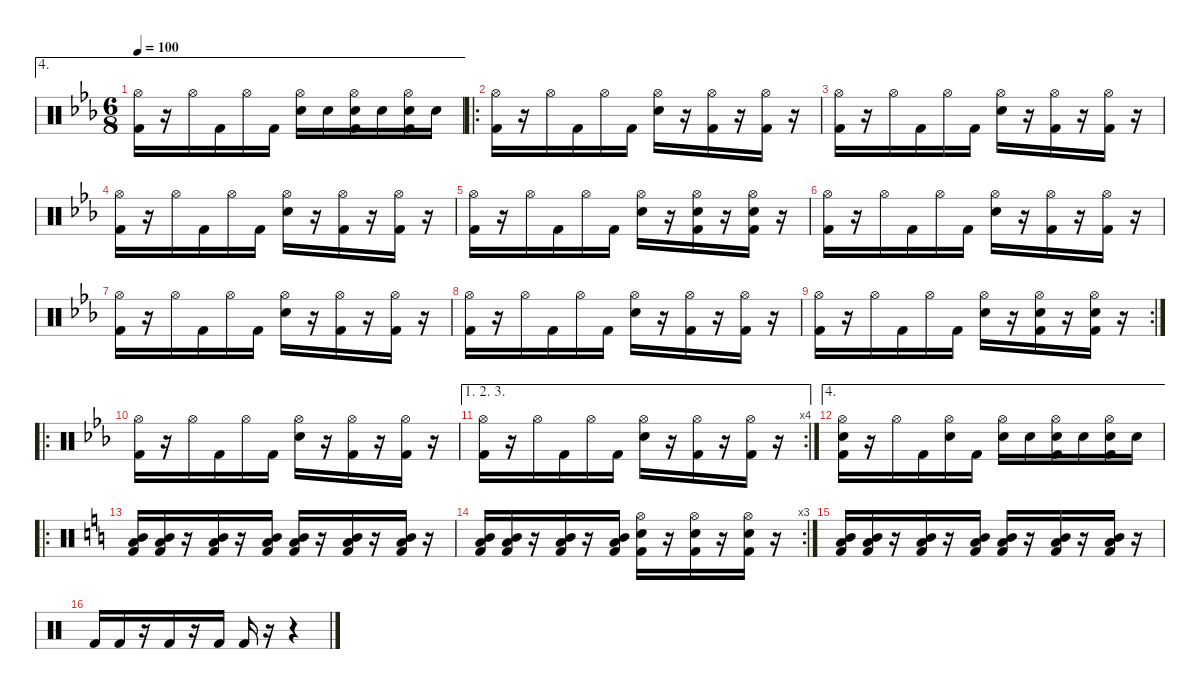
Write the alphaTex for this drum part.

\defaultSystemsLayout 4
\hideDynamics
\bracketExtendMode nobrackets
\singleTrackTrackNamePolicy hidden
\multiTrackTrackNamePolicy hidden
\firstSystemTrackNameMode fullname
\firstSystemTrackNameOrientation horizontal
\otherSystemsTrackNameOrientation horizontal
\track ("Drums" "drm.") {instrument percussion}
\staff {score}
\articulation defaults
\ae 4
\ts (6 8)
\tempo 100
\clef neutral
\ks eb
("Hi-Hat (open)"{acc forcenatural} "Kick (hit) 2"{acc forcenatural}).16{dy f beam Down} r.16{beam Down} "Hi-Hat (open)"{acc forcenatural}.16{beam Down} "Kick (hit) 2"{acc forcenatural}.16{beam Down} "Hi-Hat (open)"{acc forcenatural}.16{beam Down} "Kick (hit) 2"{acc forcenatural}.16{beam Down} ("Hi-Hat (open)"{acc forcenatural} "Snare (hit) 2"{acc forcenatural}).16{beam Down} "Snare (hit) 2"{acc forcenatural}.16{beam Down} ("Hi-Hat (open)"{acc forcenatural} "Snare (hit) 2"{acc forcenatural} "Kick (hit) 2"{acc forcenatural}).16{beam Down} "Snare (hit) 2"{acc forcenatural}.16{beam Down} ("Hi-Hat (open)"{acc forcenatural} "Snare (hit) 2"{acc forcenatural} "Kick (hit) 2"{acc forcenatural}).16{beam Down} "Snare (hit) 2"{acc forcenatural}.16{beam Down} |
\ro
("Hi-Hat (open)"{acc forcenatural} "Kick (hit) 2"{acc forcenatural}).16{beam Down} r.16{beam Down} "Hi-Hat (open)"{acc forcenatural}.16{beam Down} "Kick (hit) 2"{acc forcenatural}.16{beam Down} "Hi-Hat (open)"{acc forcenatural}.16{beam Down} "Kick (hit) 2"{acc forcenatural}.16{beam Down} ("Hi-Hat (open)"{acc forcenatural} "Snare (hit) 2"{acc forcenatural}).16{beam Down} r.16{beam Down} ("Hi-Hat (open)"{acc forcenatural} "Kick (hit) 2"{acc forcenatural}).16{beam Down} r.16{beam Down} ("Hi-Hat (open)"{acc forcenatural} "Kick (hit) 2"{acc forcenatural}).16{beam Down} r.16{beam Down} |
("Hi-Hat (open)"{acc forcenatural} "Kick (hit) 2"{acc forcenatural}).16{beam Down} r.16{beam Down} "Hi-Hat (open)"{acc forcenatural}.16{beam Down} "Kick (hit) 2"{acc forcenatural}.16{beam Down} "Hi-Hat (open)"{acc forcenatural}.16{beam Down} "Kick (hit) 2"{acc forcenatural}.16{beam Down} ("Hi-Hat (open)"{acc forcenatural} "Snare (hit) 2"{acc forcenatural}).16{beam Down} r.16{beam Down} ("Hi-Hat (open)"{acc forcenatural} "Kick (hit) 2"{acc forcenatural}).16{beam Down} r.16{beam Down} ("Hi-Hat (open)"{acc forcenatural} "Kick (hit) 2"{acc forcenatural}).16{beam Down} r.16{beam Down} |
("Hi-Hat (open)"{acc forcenatural} "Kick (hit) 2"{acc forcenatural}).16{beam Down} r.16{beam Down} "Hi-Hat (open)"{acc forcenatural}.16{beam Down} "Kick (hit) 2"{acc forcenatural}.16{beam Down} "Hi-Hat (open)"{acc forcenatural}.16{beam Down} "Kick (hit) 2"{acc forcenatural}.16{beam Down} ("Hi-Hat (open)"{acc forcenatural} "Snare (hit) 2"{acc forcenatural}).16{beam Down} r.16{beam Down} ("Hi-Hat (open)"{acc forcenatural} "Kick (hit) 2"{acc forcenatural}).16{beam Down} r.16{beam Down} ("Hi-Hat (open)"{acc forcenatural} "Kick (hit) 2"{acc forcenatural}).16{beam Down} r.16{beam Down} |
("Hi-Hat (open)"{acc forcenatural} "Kick (hit) 2"{acc forcenatural}).16{beam Down} r.16{beam Down} "Hi-Hat (open)"{acc forcenatural}.16{beam Down} "Kick (hit) 2"{acc forcenatural}.16{beam Down} "Hi-Hat (open)"{acc forcenatural}.16{beam Down} "Kick (hit) 2"{acc forcenatural}.16{beam Down} ("Hi-Hat (open)"{acc forcenatural} "Snare (hit) 2"{acc forcenatural}).16{beam Down} r.16{beam Down} ("Hi-Hat (open)"{acc forcenatural} "Snare (hit) 2"{acc forcenatural} "Kick (hit) 2"{acc forcenatural}).16{beam Down} r.16{beam Down} ("Hi-Hat (open)"{acc forcenatural} "Snare (hit) 2"{acc forcenatural} "Kick (hit) 2"{acc forcenatural}).16{beam Down} r.16{beam Down} |
("Hi-Hat (open)"{acc forcenatural} "Kick (hit) 2"{acc forcenatural}).16{beam Down} r.16{beam Down} "Hi-Hat (open)"{acc forcenatural}.16{beam Down} "Kick (hit) 2"{acc forcenatural}.16{beam Down} "Hi-Hat (open)"{acc forcenatural}.16{beam Down} "Kick (hit) 2"{acc forcenatural}.16{beam Down} ("Hi-Hat (open)"{acc forcenatural} "Snare (hit) 2"{acc forcenatural}).16{beam Down} r.16{beam Down} ("Hi-Hat (open)"{acc forcenatural} "Kick (hit) 2"{acc forcenatural}).16{beam Down} r.16{beam Down} ("Hi-Hat (open)"{acc forcenatural} "Kick (hit) 2"{acc forcenatural}).16{beam Down} r.16{beam Down} |
("Hi-Hat (open)"{acc forcenatural} "Kick (hit) 2"{acc forcenatural}).16{beam Down} r.16{beam Down} "Hi-Hat (open)"{acc forcenatural}.16{beam Down} "Kick (hit) 2"{acc forcenatural}.16{beam Down} "Hi-Hat (open)"{acc forcenatural}.16{beam Down} "Kick (hit) 2"{acc forcenatural}.16{beam Down} ("Hi-Hat (open)"{acc forcenatural} "Snare (hit) 2"{acc forcenatural}).16{beam Down} r.16{beam Down} ("Hi-Hat (open)"{acc forcenatural} "Kick (hit) 2"{acc forcenatural}).16{beam Down} r.16{beam Down} ("Hi-Hat (open)"{acc forcenatural} "Kick (hit) 2"{acc forcenatural}).16{beam Down} r.16{beam Down} |
("Hi-Hat (open)"{acc forcenatural} "Kick (hit) 2"{acc forcenatural}).16{beam Down} r.16{beam Down} "Hi-Hat (open)"{acc forcenatural}.16{beam Down} "Kick (hit) 2"{acc forcenatural}.16{beam Down} "Hi-Hat (open)"{acc forcenatural}.16{beam Down} "Kick (hit) 2"{acc forcenatural}.16{beam Down} ("Hi-Hat (open)"{acc forcenatural} "Snare (hit) 2"{acc forcenatural}).16{beam Down} r.16{beam Down} ("Hi-Hat (open)"{acc forcenatural} "Kick (hit) 2"{acc forcenatural}).16{beam Down} r.16{beam Down} ("Hi-Hat (open)"{acc forcenatural} "Kick (hit) 2"{acc forcenatural}).16{beam Down} r.16{beam Down} |
\rc 2
("Hi-Hat (open)"{acc forcenatural} "Kick (hit) 2"{acc forcenatural}).16{beam Down} r.16{beam Down} "Hi-Hat (open)"{acc forcenatural}.16{beam Down} "Kick (hit) 2"{acc forcenatural}.16{beam Down} "Hi-Hat (open)"{acc forcenatural}.16{beam Down} "Kick (hit) 2"{acc forcenatural}.16{beam Down} ("Hi-Hat (open)"{acc forcenatural} "Snare (hit) 2"{acc forcenatural}).16{beam Down} r.16{beam Down} ("Hi-Hat (open)"{acc forcenatural} "Snare (hit) 2"{acc forcenatural} "Kick (hit) 2"{acc forcenatural}).16{beam Down} r.16{beam Down} ("Hi-Hat (open)"{acc forcenatural} "Snare (hit) 2"{acc forcenatural} "Kick (hit) 2"{acc forcenatural}).16{beam Down} r.16{beam Down} |
\ro
("Hi-Hat (open)"{acc forcenatural} "Kick (hit) 2"{acc forcenatural}).16{beam Down} r.16{beam Down} "Hi-Hat (open)"{acc forcenatural}.16{beam Down} "Kick (hit) 2"{acc forcenatural}.16{beam Down} "Hi-Hat (open)"{acc forcenatural}.16{beam Down} "Kick (hit) 2"{acc forcenatural}.16{beam Down} ("Hi-Hat (open)"{acc forcenatural} "Snare (hit) 2"{acc forcenatural}).16{beam Down} r.16{beam Down} ("Hi-Hat (open)"{acc forcenatural} "Kick (hit) 2"{acc forcenatural}).16{beam Down} r.16{beam Down} ("Hi-Hat (open)"{acc forcenatural} "Kick (hit) 2"{acc forcenatural}).16{beam Down} r.16{beam Down} |
\ae (1 2 3)
\rc 4
("Hi-Hat (open)"{acc forcenatural} "Kick (hit) 2"{acc forcenatural}).16{beam Down} r.16{beam Down} "Hi-Hat (open)"{acc forcenatural}.16{beam Down} "Kick (hit) 2"{acc forcenatural}.16{beam Down} "Hi-Hat (open)"{acc forcenatural}.16{beam Down} "Kick (hit) 2"{acc forcenatural}.16{beam Down} ("Hi-Hat (open)"{acc forcenatural} "Snare (hit) 2"{acc forcenatural}).16{beam Down} r.16{beam Down} ("Hi-Hat (open)"{acc forcenatural} "Kick (hit) 2"{acc forcenatural}).16{beam Down} r.16{beam Down} ("Hi-Hat (open)"{acc forcenatural} "Kick (hit) 2"{acc forcenatural}).16{beam Down} r.16{beam Down} |
\ae 4
("Hi-Hat (open)"{acc forcenatural} "Snare (hit) 2"{acc forcenatural} "Kick (hit) 2"{acc forcenatural}).16{beam Down} r.16{beam Down} "Hi-Hat (open)"{acc forcenatural}.16{beam Down} "Kick (hit) 2"{acc forcenatural}.16{beam Down} ("Hi-Hat (open)"{acc forcenatural} "Snare (hit) 2"{acc forcenatural}).16{beam Down} "Kick (hit) 2"{acc forcenatural}.16{beam Down} ("Hi-Hat (open)"{acc forcenatural} "Snare (hit) 2"{acc forcenatural}).16{beam Down} "Snare (hit) 2"{acc forcenatural}.16{beam Down} ("Hi-Hat (open)"{acc forcenatural} "Snare (hit) 2"{acc forcenatural} "Kick (hit) 2"{acc forcenatural}).16{beam Down} "Snare (hit) 2"{acc forcenatural}.16{beam Down} ("Hi-Hat (open)"{acc forcenatural} "Snare (hit) 2"{acc forcenatural} "Kick (hit) 2"{acc forcenatural}).16{beam Down} "Snare (hit) 2"{acc forcenatural}.16{beam Down} |
\ro
\ks c
("Mid Tom (hit)" "Low Tom (hit)" "Kick (hit) 2").16{beam Up} ("Mid Tom (hit)" "Low Tom (hit)" "Kick (hit) 2").16{beam Up} r.16{beam Up} ("Mid Tom (hit)" "Low Tom (hit)" "Kick (hit) 2").16{beam Up} r.16{beam Up} ("Mid Tom (hit)" "Low Tom (hit)" "Kick (hit) 2").16{beam Up} ("Mid Tom (hit)" "Low Tom (hit)" "Kick (hit) 2").16{beam Up} r.16{beam Up} ("Mid Tom (hit)" "Low Tom (hit)" "Kick (hit) 2").16{beam Up} r.16{beam Up} ("Mid Tom (hit)" "Low Tom (hit)" "Kick (hit) 2").16{beam Up} r.16{beam Up} |
\rc 3
("Mid Tom (hit)" "Low Tom (hit)" "Kick (hit) 2").16{beam Up} ("Mid Tom (hit)" "Low Tom (hit)" "Kick (hit) 2").16{beam Up} r.16{beam Up} ("Mid Tom (hit)" "Low Tom (hit)" "Kick (hit) 2").16{beam Up} r.16{beam Up} ("Mid Tom (hit)" "Low Tom (hit)" "Kick (hit) 2").16{beam Down} ("Hi-Hat (open)" "Snare (hit) 2" "Kick (hit) 2").16{beam Down} r.16{beam Down} ("Hi-Hat (open)" "Snare (hit) 2" "Kick (hit) 2").16{beam Down} r.16{beam Down} ("Hi-Hat (open)" "Snare (hit) 2" "Kick (hit) 2").16{beam Down} r.16{beam Down} |
("Mid Tom (hit)" "Low Tom (hit)" "Kick (hit) 2").16{beam Up} ("Mid Tom (hit)" "Low Tom (hit)" "Kick (hit) 2").16{beam Up} r.16{beam Up} ("Mid Tom (hit)" "Low Tom (hit)" "Kick (hit) 2").16{beam Up} r.16{beam Up} ("Mid Tom (hit)" "Low Tom (hit)" "Kick (hit) 2").16{beam Up} ("Mid Tom (hit)" "Low Tom (hit)" "Kick (hit) 2").16{beam Up} r.16{beam Up} ("Mid Tom (hit)" "Low Tom (hit)" "Kick (hit) 2").16{beam Up} r.16{beam Up} ("Mid Tom (hit)" "Low Tom (hit)" "Kick (hit) 2").16{beam Up} r.16{beam Up} |
\beaming (8 3 3)
"Kick (hit) 2".16{beam Up} "Kick (hit) 2".16{beam Up} r.16{beam Up} "Kick (hit) 2".16{beam Up} r.16{beam Up} "Kick (hit) 2".16{beam Up} "Kick (hit) 2".16{beam Up} r.16{beam Up} r.4{beam Up}
